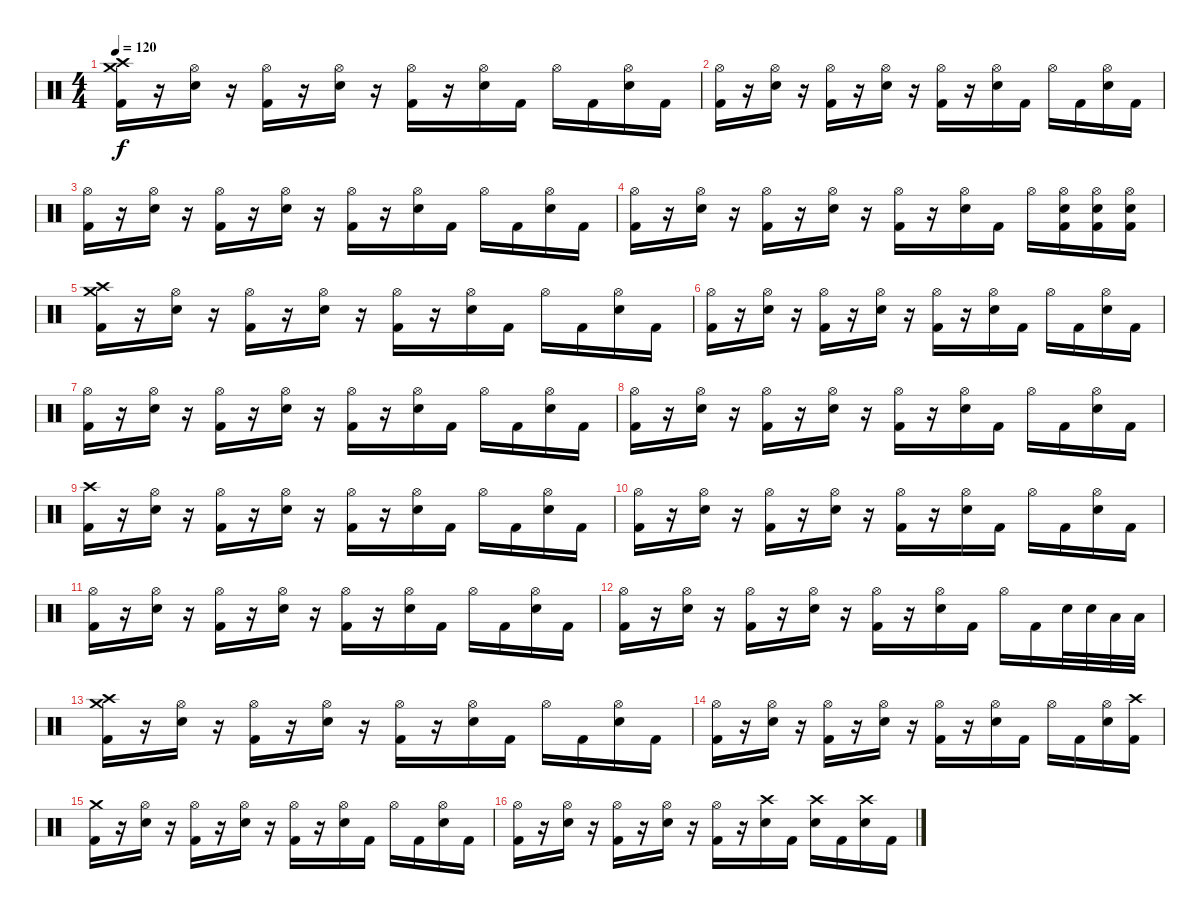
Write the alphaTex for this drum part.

\track "" {instrument percussion}
\staff {score}
\articulation defaults
\ts (4 4)
\tempo 120
\tempo 74
\tempo 120
\clef neutral
\ks c
("Crash high (hit)" "Crash medium (hit)" "Kick (hit) 2").16{dy f} r.16 ("Hi-Hat (open)" "Electric Snare (hit)").16 r.16 ("Hi-Hat (open)" "Kick (hit) 2").16 r.16 ("Hi-Hat (open)" "Electric Snare (hit)").16 r.16 ("Hi-Hat (open)" "Kick (hit) 2").16 r.16 ("Hi-Hat (open)" "Electric Snare (hit)").16 "Kick (hit) 2".16 "Hi-Hat (open)".16 "Kick (hit) 2".16 ("Hi-Hat (open)" "Electric Snare (hit)").16 "Kick (hit) 2".16 |
("Hi-Hat (open)" "Kick (hit) 2").16 r.16 ("Hi-Hat (open)" "Electric Snare (hit)").16 r.16 ("Hi-Hat (open)" "Kick (hit) 2").16 r.16 ("Hi-Hat (open)" "Electric Snare (hit)").16 r.16 ("Hi-Hat (open)" "Kick (hit) 2").16 r.16 ("Hi-Hat (open)" "Electric Snare (hit)").16 "Kick (hit) 2".16 "Hi-Hat (open)".16 "Kick (hit) 2".16 ("Hi-Hat (open)" "Electric Snare (hit)").16 "Kick (hit) 2".16 |
("Hi-Hat (open)" "Kick (hit) 2").16 r.16 ("Hi-Hat (open)" "Electric Snare (hit)").16 r.16 ("Hi-Hat (open)" "Kick (hit) 2").16 r.16 ("Hi-Hat (open)" "Electric Snare (hit)").16 r.16 ("Hi-Hat (open)" "Kick (hit) 2").16 r.16 ("Hi-Hat (open)" "Electric Snare (hit)").16 "Kick (hit) 2".16 "Hi-Hat (open)".16 "Kick (hit) 2".16 ("Hi-Hat (open)" "Electric Snare (hit)").16 "Kick (hit) 2".16 |
("Hi-Hat (open)" "Kick (hit) 2").16 r.16 ("Hi-Hat (open)" "Electric Snare (hit)").16 r.16 ("Hi-Hat (open)" "Kick (hit) 2").16 r.16 ("Hi-Hat (open)" "Electric Snare (hit)").16 r.16 ("Hi-Hat (open)" "Kick (hit) 2").16 r.16 ("Hi-Hat (open)" "Electric Snare (hit)").16 "Kick (hit) 2".16 "Hi-Hat (open)".16 ("Hi-Hat (open)" "Electric Snare (hit)" "Kick (hit) 2").16 ("Hi-Hat (open)" "Electric Snare (hit)" "Kick (hit) 2").16 ("Hi-Hat (open)" "Electric Snare (hit)" "Kick (hit) 2").16 |
("Crash high (hit)" "Crash medium (hit)" "Kick (hit) 2").16 r.16 ("Hi-Hat (open)" "Electric Snare (hit)").16 r.16 ("Hi-Hat (open)" "Kick (hit) 2").16 r.16 ("Hi-Hat (open)" "Electric Snare (hit)").16 r.16 ("Hi-Hat (open)" "Kick (hit) 2").16 r.16 ("Hi-Hat (open)" "Electric Snare (hit)").16 "Kick (hit) 2".16 "Hi-Hat (open)".16 "Kick (hit) 2".16 ("Hi-Hat (open)" "Electric Snare (hit)").16 "Kick (hit) 2".16 |
("Hi-Hat (open)" "Kick (hit) 2").16 r.16 ("Hi-Hat (open)" "Electric Snare (hit)").16 r.16 ("Hi-Hat (open)" "Kick (hit) 2").16 r.16 ("Hi-Hat (open)" "Electric Snare (hit)").16 r.16 ("Hi-Hat (open)" "Kick (hit) 2").16 r.16 ("Hi-Hat (open)" "Electric Snare (hit)").16 "Kick (hit) 2".16 "Hi-Hat (open)".16 "Kick (hit) 2".16 ("Hi-Hat (open)" "Electric Snare (hit)").16 "Kick (hit) 2".16 |
("Hi-Hat (open)" "Kick (hit) 2").16 r.16 ("Hi-Hat (open)" "Electric Snare (hit)").16 r.16 ("Hi-Hat (open)" "Kick (hit) 2").16 r.16 ("Hi-Hat (open)" "Electric Snare (hit)").16 r.16 ("Hi-Hat (open)" "Kick (hit) 2").16 r.16 ("Hi-Hat (open)" "Electric Snare (hit)").16 "Kick (hit) 2".16 "Hi-Hat (open)".16 "Kick (hit) 2".16 ("Hi-Hat (open)" "Electric Snare (hit)").16 "Kick (hit) 2".16 |
("Hi-Hat (open)" "Kick (hit) 2").16 r.16 ("Hi-Hat (open)" "Electric Snare (hit)").16 r.16 ("Hi-Hat (open)" "Kick (hit) 2").16 r.16 ("Hi-Hat (open)" "Electric Snare (hit)").16 r.16 ("Hi-Hat (open)" "Kick (hit) 2").16 r.16 ("Hi-Hat (open)" "Electric Snare (hit)").16 "Kick (hit) 2".16 "Hi-Hat (open)".16 "Kick (hit) 2".16 ("Hi-Hat (open)" "Electric Snare (hit)").16 "Kick (hit) 2".16 |
("Crash high (hit)" "Kick (hit) 2").16 r.16 ("Hi-Hat (open)" "Electric Snare (hit)").16 r.16 ("Hi-Hat (open)" "Kick (hit) 2").16 r.16 ("Hi-Hat (open)" "Electric Snare (hit)").16 r.16 ("Hi-Hat (open)" "Kick (hit) 2").16 r.16 ("Hi-Hat (open)" "Electric Snare (hit)").16 "Kick (hit) 2".16 "Hi-Hat (open)".16 "Kick (hit) 2".16 ("Hi-Hat (open)" "Electric Snare (hit)").16 "Kick (hit) 2".16 |
("Hi-Hat (open)" "Kick (hit) 2").16 r.16 ("Hi-Hat (open)" "Electric Snare (hit)").16 r.16 ("Hi-Hat (open)" "Kick (hit) 2").16 r.16 ("Hi-Hat (open)" "Electric Snare (hit)").16 r.16 ("Hi-Hat (open)" "Kick (hit) 2").16 r.16 ("Hi-Hat (open)" "Electric Snare (hit)").16 "Kick (hit) 2".16 "Hi-Hat (open)".16 "Kick (hit) 2".16 ("Hi-Hat (open)" "Electric Snare (hit)").16 "Kick (hit) 2".16 |
("Hi-Hat (open)" "Kick (hit) 2").16 r.16 ("Hi-Hat (open)" "Electric Snare (hit)").16 r.16 ("Hi-Hat (open)" "Kick (hit) 2").16 r.16 ("Hi-Hat (open)" "Electric Snare (hit)").16 r.16 ("Hi-Hat (open)" "Kick (hit) 2").16 r.16 ("Hi-Hat (open)" "Electric Snare (hit)").16 "Kick (hit) 2".16 "Hi-Hat (open)".16 "Kick (hit) 2".16 ("Hi-Hat (open)" "Electric Snare (hit)").16 "Kick (hit) 2".16 |
("Hi-Hat (open)" "Kick (hit) 2").16 r.16 ("Hi-Hat (open)" "Electric Snare (hit)").16 r.16 ("Hi-Hat (open)" "Kick (hit) 2").16 r.16 ("Hi-Hat (open)" "Electric Snare (hit)").16 r.16 ("Hi-Hat (open)" "Kick (hit) 2").16 r.16 ("Hi-Hat (open)" "Electric Snare (hit)").16 "Kick (hit) 2".16 "Hi-Hat (open)".16 "Kick (hit) 2".16 "Electric Snare (hit)".32 "Electric Snare (hit)".32 "Low Tom (hit)".32 "Low Tom (hit)".32 |
("Crash high (hit)" "Crash medium (hit)" "Kick (hit) 2").16 r.16 ("Hi-Hat (open)" "Electric Snare (hit)").16 r.16 ("Hi-Hat (open)" "Kick (hit) 2").16 r.16 ("Hi-Hat (open)" "Electric Snare (hit)").16 r.16 ("Hi-Hat (open)" "Kick (hit) 2").16 r.16 ("Hi-Hat (open)" "Electric Snare (hit)").16 "Kick (hit) 2".16 "Hi-Hat (open)".16 "Kick (hit) 2".16 ("Hi-Hat (open)" "Electric Snare (hit)").16 "Kick (hit) 2".16 |
("Hi-Hat (open)" "Kick (hit) 2").16 r.16 ("Hi-Hat (open)" "Electric Snare (hit)").16 r.16 ("Hi-Hat (open)" "Kick (hit) 2").16 r.16 ("Hi-Hat (open)" "Electric Snare (hit)").16 r.16 ("Hi-Hat (open)" "Kick (hit) 2").16 r.16 ("Hi-Hat (open)" "Electric Snare (hit)").16 "Kick (hit) 2".16 "Hi-Hat (open)".16 "Kick (hit) 2".16 ("Hi-Hat (open)" "Electric Snare (hit)").16 ("Crash high (hit)" "Kick (hit) 2").16 |
("Crash medium (hit)" "Kick (hit) 2").16 r.16 ("Hi-Hat (open)" "Electric Snare (hit)").16 r.16 ("Hi-Hat (open)" "Kick (hit) 2").16 r.16 ("Hi-Hat (open)" "Electric Snare (hit)").16 r.16 ("Hi-Hat (open)" "Kick (hit) 2").16 r.16 ("Hi-Hat (open)" "Electric Snare (hit)").16 "Kick (hit) 2".16 "Hi-Hat (open)".16 "Kick (hit) 2".16 ("Hi-Hat (open)" "Electric Snare (hit)").16 "Kick (hit) 2".16 |
("Hi-Hat (open)" "Kick (hit) 2").16 r.16 ("Hi-Hat (open)" "Electric Snare (hit)").16 r.16 ("Hi-Hat (open)" "Kick (hit) 2").16 r.16 ("Hi-Hat (open)" "Electric Snare (hit)").16 r.16 ("Hi-Hat (open)" "Kick (hit) 2").16 r.16 ("Crash high (hit)" "Electric Snare (hit)").16 "Kick (hit) 2".16 ("Crash high (hit)" "Electric Snare (hit)").16 "Kick (hit) 2".16 ("Crash high (hit)" "Electric Snare (hit)").16 "Kick (hit) 2".16
